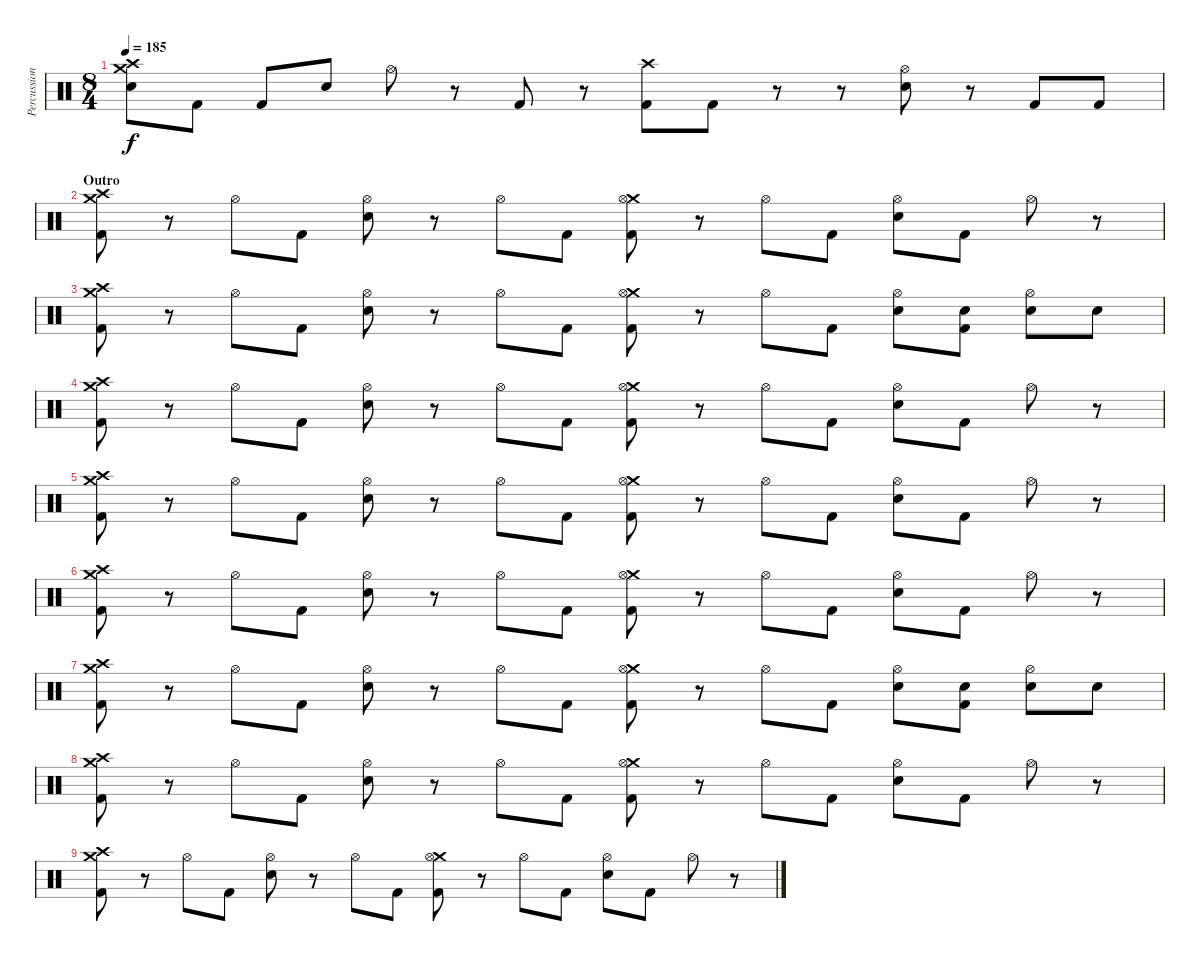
\track ("Percussion" "Percussion") {instrument percussion}
\staff {score}
\articulation defaults
\ts (8 4)
\tempo 185
\clef neutral
\ks c
("Crash high (hit)" "Crash medium (hit)" "Electric Snare (hit)").8{dy f} "Kick (hit) 2".8 "Kick (hit) 2".8 "Electric Snare (hit)".8 "Hi-Hat (open)".8 r.8 "Kick (hit) 2".8 r.8 ("Crash high (hit)" "Kick (hit) 2").8 "Kick (hit) 2".8 r.8 r.8 ("Hi-Hat (open)" "Electric Snare (hit)").8 r.8 "Kick (hit) 2".8 "Kick (hit) 2".8 |
\section ("" "Outro")
("Crash high (hit)" "Crash medium (hit)" "Kick (hit) 2").8 r.8 "Hi-Hat (open)".8 "Kick (hit) 2".8 ("Hi-Hat (open)" "Electric Snare (hit)").8 r.8 "Hi-Hat (open)".8 "Kick (hit) 2".8 ("Crash medium (hit)" "Hi-Hat (open)" "Kick (hit) 2").8 r.8 "Hi-Hat (open)".8 "Kick (hit) 2".8 ("Hi-Hat (open)" "Electric Snare (hit)").8 "Kick (hit) 2".8 "Hi-Hat (open)".8 r.8 |
("Crash high (hit)" "Crash medium (hit)" "Kick (hit) 2").8 r.8 "Hi-Hat (open)".8 "Kick (hit) 2".8 ("Hi-Hat (open)" "Electric Snare (hit)").8 r.8 "Hi-Hat (open)".8 "Kick (hit) 2".8 ("Crash medium (hit)" "Hi-Hat (open)" "Kick (hit) 2").8 r.8 "Hi-Hat (open)".8 "Kick (hit) 2".8 ("Hi-Hat (open)" "Electric Snare (hit)").8 ("Electric Snare (hit)" "Kick (hit) 2").8 ("Hi-Hat (open)" "Electric Snare (hit)").8 "Electric Snare (hit)".8 |
("Crash high (hit)" "Crash medium (hit)" "Kick (hit) 2").8 r.8 "Hi-Hat (open)".8 "Kick (hit) 2".8 ("Hi-Hat (open)" "Electric Snare (hit)").8 r.8 "Hi-Hat (open)".8 "Kick (hit) 2".8 ("Crash medium (hit)" "Hi-Hat (open)" "Kick (hit) 2").8 r.8 "Hi-Hat (open)".8 "Kick (hit) 2".8 ("Hi-Hat (open)" "Electric Snare (hit)").8 "Kick (hit) 2".8 "Hi-Hat (open)".8 r.8 |
("Crash high (hit)" "Crash medium (hit)" "Kick (hit) 2").8 r.8 "Hi-Hat (open)".8 "Kick (hit) 2".8 ("Hi-Hat (open)" "Electric Snare (hit)").8 r.8 "Hi-Hat (open)".8 "Kick (hit) 2".8 ("Crash medium (hit)" "Hi-Hat (open)" "Kick (hit) 2").8 r.8 "Hi-Hat (open)".8 "Kick (hit) 2".8 ("Hi-Hat (open)" "Electric Snare (hit)").8 "Kick (hit) 2".8 "Hi-Hat (open)".8 r.8 |
("Crash high (hit)" "Crash medium (hit)" "Kick (hit) 2").8 r.8 "Hi-Hat (open)".8 "Kick (hit) 2".8 ("Hi-Hat (open)" "Electric Snare (hit)").8 r.8 "Hi-Hat (open)".8 "Kick (hit) 2".8 ("Crash medium (hit)" "Hi-Hat (open)" "Kick (hit) 2").8 r.8 "Hi-Hat (open)".8 "Kick (hit) 2".8 ("Hi-Hat (open)" "Electric Snare (hit)").8 "Kick (hit) 2".8 "Hi-Hat (open)".8 r.8 |
("Crash high (hit)" "Crash medium (hit)" "Kick (hit) 2").8 r.8 "Hi-Hat (open)".8 "Kick (hit) 2".8 ("Hi-Hat (open)" "Electric Snare (hit)").8 r.8 "Hi-Hat (open)".8 "Kick (hit) 2".8 ("Crash medium (hit)" "Hi-Hat (open)" "Kick (hit) 2").8 r.8 "Hi-Hat (open)".8 "Kick (hit) 2".8 ("Hi-Hat (open)" "Electric Snare (hit)").8 ("Electric Snare (hit)" "Kick (hit) 2").8 ("Hi-Hat (open)" "Electric Snare (hit)").8 "Electric Snare (hit)".8 |
("Crash high (hit)" "Crash medium (hit)" "Kick (hit) 2").8 r.8 "Hi-Hat (open)".8 "Kick (hit) 2".8 ("Hi-Hat (open)" "Electric Snare (hit)").8 r.8 "Hi-Hat (open)".8 "Kick (hit) 2".8 ("Crash medium (hit)" "Hi-Hat (open)" "Kick (hit) 2").8 r.8 "Hi-Hat (open)".8 "Kick (hit) 2".8 ("Hi-Hat (open)" "Electric Snare (hit)").8 "Kick (hit) 2".8 "Hi-Hat (open)".8 r.8 |
("Crash high (hit)" "Crash medium (hit)" "Kick (hit) 2").8 r.8 "Hi-Hat (open)".8 "Kick (hit) 2".8 ("Hi-Hat (open)" "Electric Snare (hit)").8 r.8 "Hi-Hat (open)".8 "Kick (hit) 2".8 ("Crash medium (hit)" "Hi-Hat (open)" "Kick (hit) 2").8 r.8 "Hi-Hat (open)".8 "Kick (hit) 2".8 ("Hi-Hat (open)" "Electric Snare (hit)").8 "Kick (hit) 2".8 "Hi-Hat (open)".8 r.8
